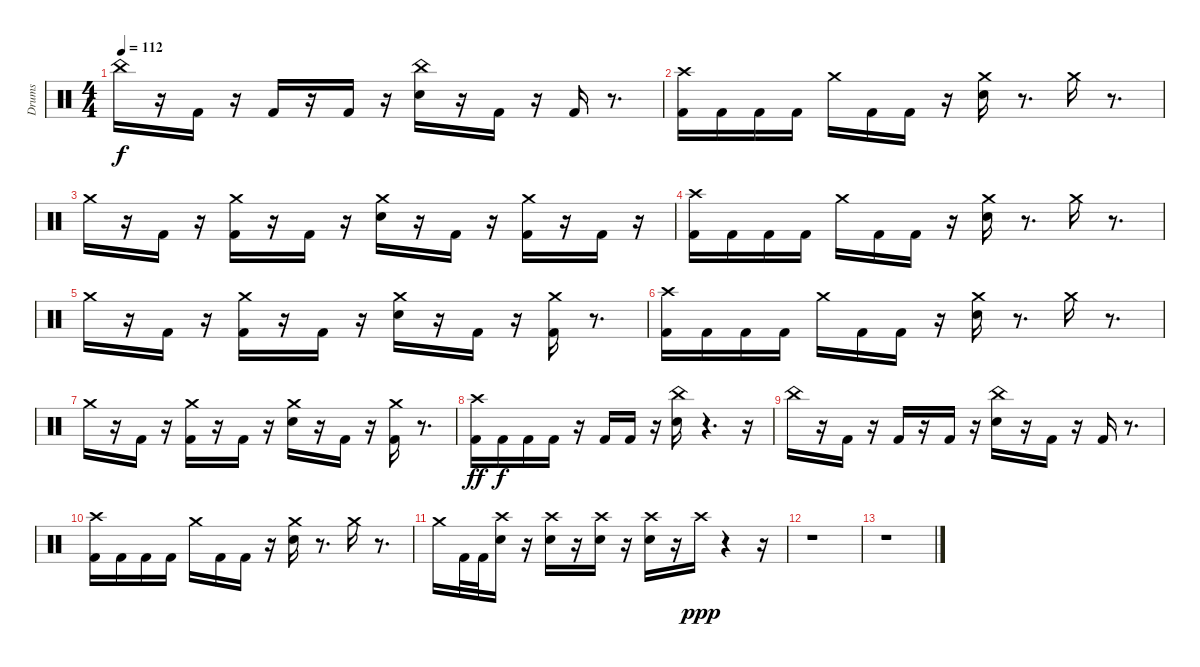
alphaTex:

\track ("Drums" "Drums") {instrument percussion}
\staff {score}
\articulation defaults
\ts (4 4)
\tempo 112
\clef neutral
\ks c "China (hit)".16{dy f}
r.16 "Kick (hit) 2".16 r.16 "Kick (hit) 2".16 r.16 "Kick (hit) 2".16 r.16 ("Snare (hit) 2" "China (hit)").16 r.16 "Kick (hit) 2".16 r.16 "Kick (hit) 2".16 r.8{d} |
("Kick (hit) 2" "Crash high (hit)").16 "Kick (hit) 2".16 "Kick (hit) 2".16 "Kick (hit) 2".16 "Crash medium (hit)".16 "Kick (hit) 2".16 "Kick (hit) 2".16 r.16 ("Snare (hit) 2" "Crash medium (hit)").16 r.8{d} "Crash medium (hit)".16 r.8{d} |
"Crash medium (hit)".16 r.16 "Kick (hit) 2".16 r.16 ("Kick (hit) 2" "Crash medium (hit)").16 r.16 "Kick (hit) 2".16 r.16 ("Snare (hit) 2" "Crash medium (hit)").16 r.16 "Kick (hit) 2".16 r.16 ("Kick (hit) 2" "Crash medium (hit)").16 r.16 "Kick (hit) 2".16 r.16 |
("Kick (hit) 2" "Crash high (hit)").16 "Kick (hit) 2".16 "Kick (hit) 2".16 "Kick (hit) 2".16 "Crash medium (hit)".16 "Kick (hit) 2".16 "Kick (hit) 2".16 r.16 ("Snare (hit) 2" "Crash medium (hit)").16 r.8{d} "Crash medium (hit)".16 r.8{d} |
"Crash medium (hit)".16 r.16 "Kick (hit) 2".16 r.16 ("Kick (hit) 2" "Crash medium (hit)").16 r.16 "Kick (hit) 2".16 r.16 ("Snare (hit) 2" "Crash medium (hit)").16 r.16 "Kick (hit) 2".16 r.16 ("Kick (hit) 2" "Crash medium (hit)").16 r.8{d} |
("Kick (hit) 2" "Crash high (hit)").16 "Kick (hit) 2".16 "Kick (hit) 2".16 "Kick (hit) 2".16 "Crash medium (hit)".16 "Kick (hit) 2".16 "Kick (hit) 2".16 r.16 ("Snare (hit) 2" "Crash medium (hit)").16 r.8{d} "Crash medium (hit)".16 r.8{d} |
"Crash medium (hit)".16 r.16 "Kick (hit) 2".16 r.16 ("Kick (hit) 2" "Crash medium (hit)").16 r.16 "Kick (hit) 2".16 r.16 ("Snare (hit) 2" "Crash medium (hit)").16 r.16 "Kick (hit) 2".16 r.16 ("Kick (hit) 2" "Crash medium (hit)").16 r.8{d} |
("Kick (hit) 2" "Crash high (hit)").16{dy ff} "Kick (hit) 2".16{dy f} "Kick (hit) 2".16 "Kick (hit) 2".16 r.16 "Kick (hit) 2".16 "Kick (hit) 2".16 r.16 ("Snare (hit) 2" "China (hit)").16 r.4{d} r.16 |
"China (hit)".16 r.16 "Kick (hit) 2".16 r.16 "Kick (hit) 2".16 r.16 "Kick (hit) 2".16 r.16 ("Snare (hit) 2" "China (hit)").16 r.16 "Kick (hit) 2".16 r.16 "Kick (hit) 2".16 r.8{d} |
("Kick (hit) 2" "Crash high (hit)").16 "Kick (hit) 2".16 "Kick (hit) 2".16 "Kick (hit) 2".16 "Crash medium (hit)".16 "Kick (hit) 2".16 "Kick (hit) 2".16 r.16 ("Snare (hit) 2" "Crash medium (hit)").16 r.8{d} "Crash medium (hit)".16 r.8{d} |
"Crash medium (hit)".16 "Kick (hit) 2".32 "Kick (hit) 2".32 ("Snare (hit) 2" "Crash high (hit)").16 r.16 ("Snare (hit) 2" "Crash high (hit)").16 r.16 ("Snare (hit) 2" "Crash high (hit)").16 r.16 ("Snare (hit) 2" "Crash high (hit)").16 r.16 "Crash high (hit)".16{dy ppp} r.4 r.16 |
r.1 |
r.1
